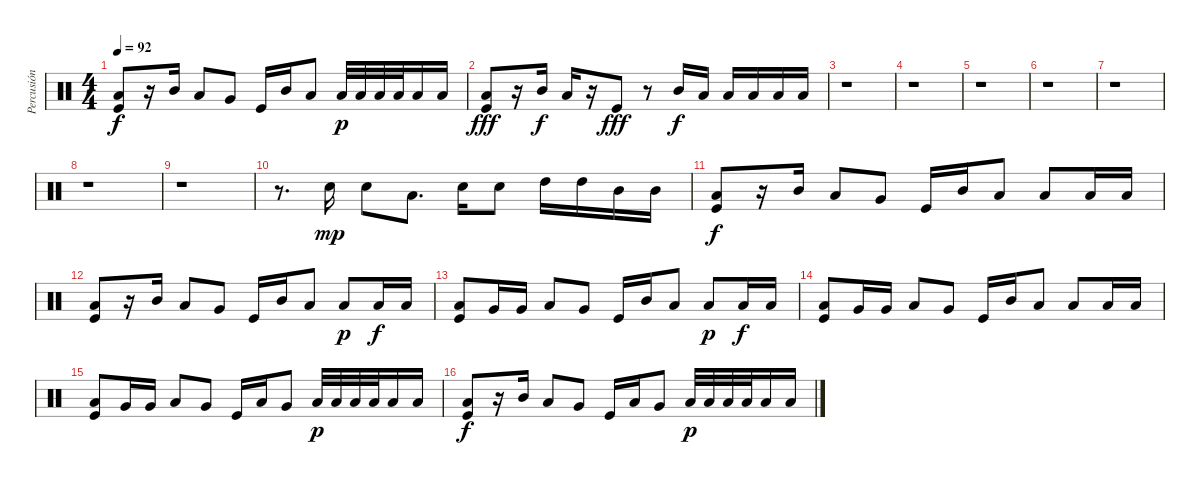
\track ("Percusión" "Percusión") {instrument percussion}
\staff {score}
\articulation defaults
\ts (4 4)
\tempo 92
\clef neutral
\ks c
("Low Tom (hit)" "Kick (hit)").8{dy f} r.16 "Mid Tom (hit)".16 "Low Tom (hit)".8 "Very Low Tom (hit)".8 "Kick (hit)".16 "Mid Tom (hit)".16 "Low Tom (hit)".8 "Low Floor Tom (hit)".32{dy p} "Low Floor Tom (hit)".32 "Low Floor Tom (hit)".32 "Low Floor Tom (hit)".32 "Low Floor Tom (hit)".16 "Low Floor Tom (hit)".16 |
("Low Tom (hit)" "Kick (hit)").8{dy fff} r.16 "Mid Tom (hit)".16{dy f} "Low Tom (hit)".16 r.16 "Kick (hit)".8{dy fff} r.8 "Mid Tom (hit)".16{dy f} "Low Tom (hit)".16 "Low Floor Tom (hit)".16 "Low Floor Tom (hit)".16 "Low Floor Tom (hit)".16 "Low Floor Tom (hit)".16 |
r.1 |
r.1 |
r.1 |
r.1 |
r.1 |
r.1 |
r.1 |
r.8{d} "Electric Snare (hit)".16{dy mp} "Electric Snare (hit)".8 "Low Tom (hit)".8{d} "Electric Snare (hit)".16 "Electric Snare (hit)".8 "High Tom (hit)".16 "High Tom (hit)".16 "Mid Tom (hit)".16 "Mid Tom (hit)".16 |
("Low Tom (hit)" "Kick (hit)").8{dy f} r.16 "Mid Tom (hit)".16 "Low Tom (hit)".8 "Very Low Tom (hit)".8 "Kick (hit)".16 "Mid Tom (hit)".16 "Low Tom (hit)".8 "Low Floor Tom (hit)".8 "Low Floor Tom (hit)".16 "Low Floor Tom (hit)".16 |
("Low Tom (hit)" "Kick (hit)").8 r.16 "Mid Tom (hit)".16 "Low Tom (hit)".8 "Very Low Tom (hit)".8 "Kick (hit)".16 "Mid Tom (hit)".16 "Low Tom (hit)".8 "Low Floor Tom (hit)".8{dy p} "Low Floor Tom (hit)".16{dy f} "Low Floor Tom (hit)".16 |
("Low Tom (hit)" "Kick (hit)").8 "Very Low Tom (hit)".16 "Very Low Tom (hit)".16 "Low Tom (hit)".8 "Very Low Tom (hit)".8 "Kick (hit)".16 "Mid Tom (hit)".16 "Low Tom (hit)".8 "Low Floor Tom (hit)".8{dy p} "Low Floor Tom (hit)".16{dy f} "Low Floor Tom (hit)".16 |
("Low Tom (hit)" "Kick (hit)").8 "Very Low Tom (hit)".16 "Very Low Tom (hit)".16 "Low Tom (hit)".8 "Very Low Tom (hit)".8 "Kick (hit)".16 "Mid Tom (hit)".16 "Low Tom (hit)".8 "Low Floor Tom (hit)".8 "Low Floor Tom (hit)".16 "Low Floor Tom (hit)".16 |
("Low Tom (hit)" "Kick (hit)").8 "Very Low Tom (hit)".16 "Very Low Tom (hit)".16 "Low Tom (hit)".8 "Very Low Tom (hit)".8 "Kick (hit)".16 "Low Tom (hit)".16 "Very Low Tom (hit)".8 "Low Floor Tom (hit)".32{dy p} "Low Floor Tom (hit)".32 "Low Floor Tom (hit)".32 "Low Floor Tom (hit)".32 "Low Floor Tom (hit)".16 "Low Floor Tom (hit)".16 |
("Low Tom (hit)" "Kick (hit)").8{dy f} r.16 "Mid Tom (hit)".16 "Low Tom (hit)".8 "Very Low Tom (hit)".8 "Kick (hit)".16 "Low Tom (hit)".16 "Very Low Tom (hit)".8 "Low Floor Tom (hit)".32{dy p} "Low Floor Tom (hit)".32 "Low Floor Tom (hit)".32 "Low Floor Tom (hit)".32 "Low Floor Tom (hit)".16 "Low Floor Tom (hit)".16
